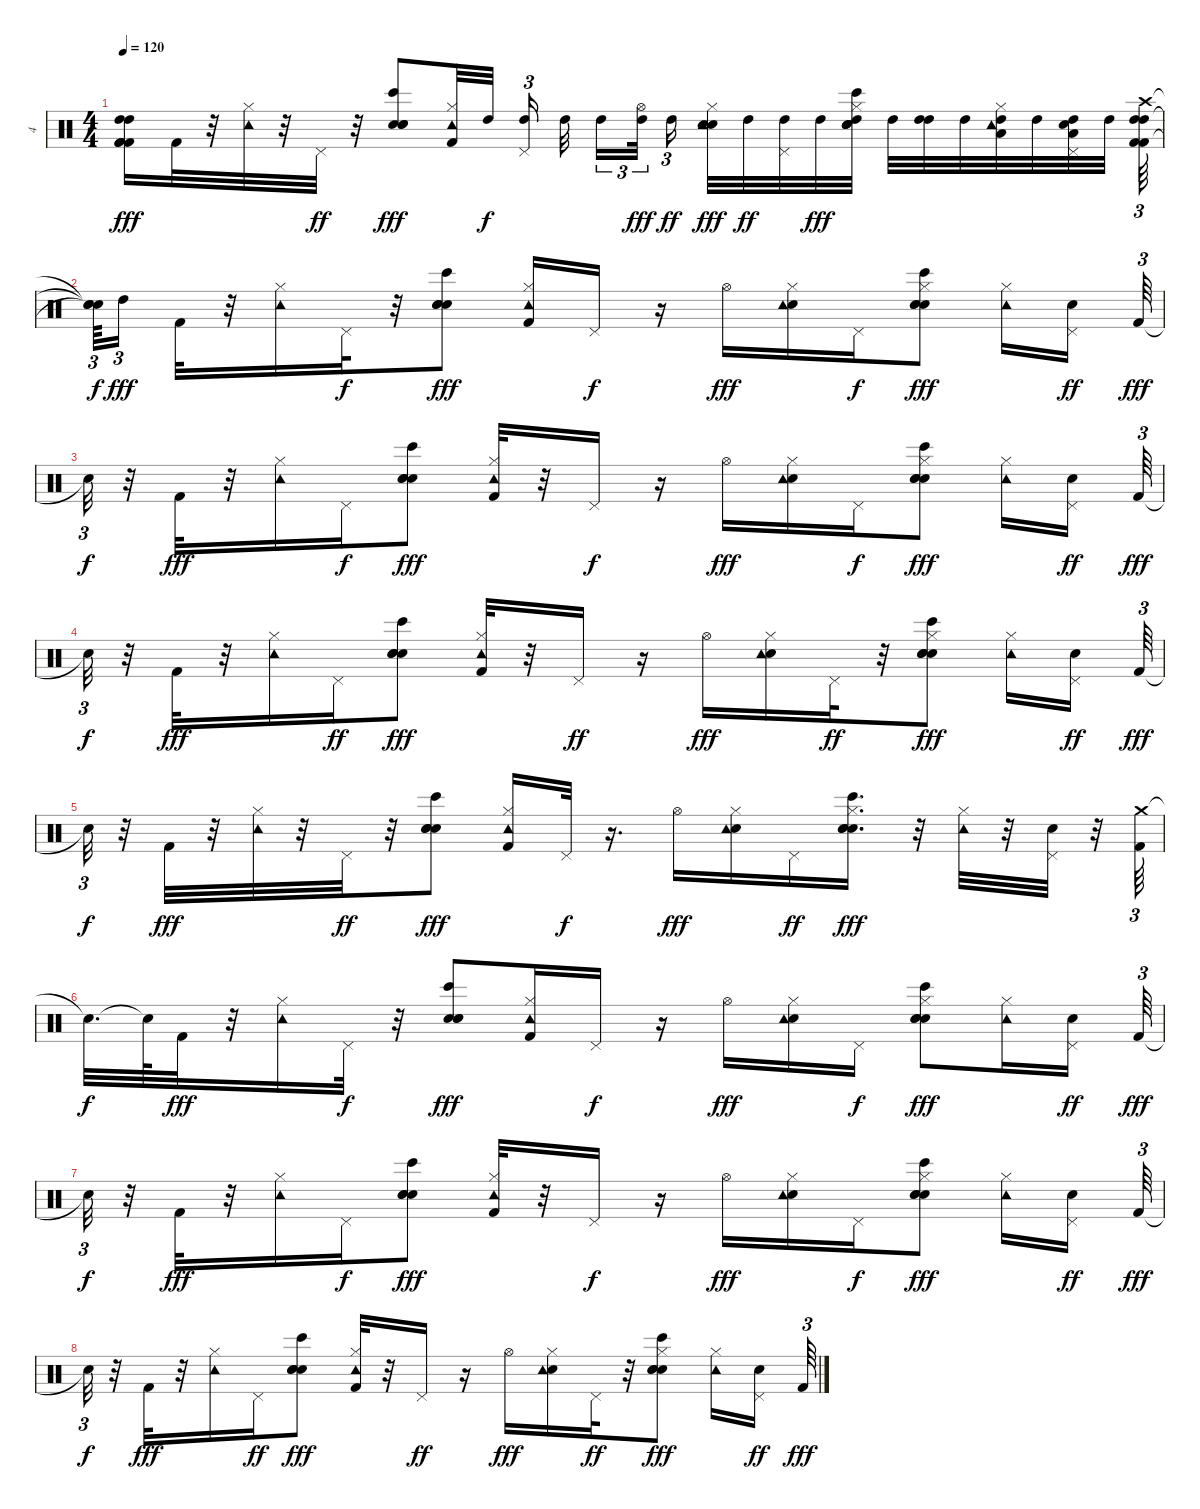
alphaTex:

\track ("4" "4") {instrument percussion}
\staff {score}
\articulation defaults
\ts (4 4)
\tempo 120
\clef neutral
\ks c
("Kick (hit) 2" "Kick (hit) 2" "High Tom (hit)" "Kick (hit) 2" "High Tom (hit)").16{dy fff} "Kick (hit) 2".32 r.32 ("Hi-Hat (closed)" "Tambourine (hit)").32 r.32 "Pedal Hi-Hat (hit)".32{dy ff} r.32 ("Snare (hit) 2" "Electric Snare (hit)" "Bongo High (hit)" "Hand Clap (hit)").8{dy fff} ("Hi-Hat (closed)" "Kick (hit) 2" "Tambourine (hit)").32 "High Tom (hit)".32{dy f beam splitsecondary} ("Pedal Hi-Hat (hit)" "High Tom (hit)").16{tu (3 2)} "High Tom (hit)".32 "High Tom (hit)".16{tu (3 2)} ("High Tom (hit)" "Hi-Hat (open)").32{tu (3 2) dy fff beam splitsecondary} "High Tom (hit)".16{tu (3 2) dy ff beam splitsecondary} ("Snare (hit) 2" "Hi-Hat (closed)" "Electric Snare (hit)" "Tambourine (hit)").32{dy fff} "High Tom (hit)".32{dy ff} ("Pedal Hi-Hat (hit)" "High Tom (hit)").32 "High Tom (hit)".32{dy fff} ("Snare (hit) 2" "High Tom (hit)" "Electric Snare (hit)" "Hand Clap (hit)" "Hi-Hat (closed)" "Bongo High (hit)").32 "High Tom (hit)".32 ("High Tom (hit)" "High Tom (hit)").32 "High Tom (hit)".32 ("Hi-Hat (closed)" "Low Tom (hit)" "Tambourine (hit)" "High Tom (hit)").32 "High Tom (hit)".32 ("High Tom (hit)" "Pedal Hi-Hat (hit)" "Snare (hit) 2" "Low Tom (hit)").32 "High Tom (hit)".32{beam splitsecondary} ("High Tom (hit)" "Crash high (hit)" "Kick (hit) 2" "High Tom (hit)" "Kick (hit) 2").64{tu (3 2)} |
("Snare (hit)"{t} "Snare (hit)"{t} "Snare (hit)"{t}).64{tu (3 2) dy f} "High Tom (hit)".16{tu (3 2) dy fff beam splitsecondary} "Kick (hit) 2".32 r.32 ("Hi-Hat (closed)" "Tambourine (hit)").16 "Pedal Hi-Hat (hit)".32{dy f} r.32 ("Snare (hit) 2" "Bongo High (hit)" "Hand Clap (hit)" "Electric Snare (hit)").8{dy fff} ("Hi-Hat (closed)" "Tambourine (hit)" "Kick (hit) 2").16 "Pedal Hi-Hat (hit)".16{dy f} r.16 "Hi-Hat (open)".16{dy fff} ("Hi-Hat (closed)" "Snare (hit) 2" "Tambourine (hit)").16 "Pedal Hi-Hat (hit)".16{dy f} ("Snare (hit) 2" "Hi-Hat (closed)" "Hand Clap (hit)" "Bongo High (hit)" "Electric Snare (hit)").8{dy fff} ("Hi-Hat (closed)" "Tambourine (hit)").16 ("Pedal Hi-Hat (hit)" "Snare (hit) 2").16{dy ff beam splitsecondary} "Kick (hit) 2".64{tu (3 2) dy fff} |
"Snare (hit)"{t}.32{tu (3 2) dy f} r.32 "Kick (hit) 2".32{dy fff} r.32 ("Hi-Hat (closed)" "Tambourine (hit)").16 "Pedal Hi-Hat (hit)".16{dy f} ("Snare (hit) 2" "Electric Snare (hit)" "Bongo High (hit)" "Hand Clap (hit)").8{dy fff} ("Hi-Hat (closed)" "Kick (hit) 2" "Tambourine (hit)").32 r.32 "Pedal Hi-Hat (hit)".16{dy f} r.16 "Hi-Hat (open)".16{dy fff} ("Snare (hit) 2" "Hi-Hat (closed)" "Tambourine (hit)").16 "Pedal Hi-Hat (hit)".16{dy f} ("Snare (hit) 2" "Hand Clap (hit)" "Hi-Hat (closed)" "Bongo High (hit)" "Electric Snare (hit)").8{dy fff} ("Hi-Hat (closed)" "Tambourine (hit)").16 ("Pedal Hi-Hat (hit)" "Snare (hit) 2").16{dy ff beam splitsecondary} "Kick (hit) 2".64{tu (3 2) dy fff} |
"Snare (hit)"{t}.32{tu (3 2) dy f} r.32 "Kick (hit) 2".32{dy fff} r.32 ("Hi-Hat (closed)" "Tambourine (hit)").16 "Pedal Hi-Hat (hit)".16{dy ff} ("Snare (hit) 2" "Electric Snare (hit)" "Bongo High (hit)" "Hand Clap (hit)").8{dy fff} ("Hi-Hat (closed)" "Kick (hit) 2" "Tambourine (hit)").32 r.32 "Pedal Hi-Hat (hit)".16{dy ff} r.16 "Hi-Hat (open)".16{dy fff} ("Snare (hit) 2" "Hi-Hat (closed)" "Tambourine (hit)").16 "Pedal Hi-Hat (hit)".32{dy ff} r.32 ("Snare (hit) 2" "Electric Snare (hit)" "Hi-Hat (closed)" "Hand Clap (hit)" "Bongo High (hit)").8{dy fff} ("Hi-Hat (closed)" "Tambourine (hit)").16 ("Pedal Hi-Hat (hit)" "Snare (hit) 2").16{dy ff beam splitsecondary} "Kick (hit) 2".64{tu (3 2) dy fff} |
"Snare (hit)"{t}.32{tu (3 2) dy f} r.32 "Kick (hit) 2".32{dy fff} r.32 ("Hi-Hat (closed)" "Tambourine (hit)").32 r.32 "Pedal Hi-Hat (hit)".32{dy ff} r.32 ("Snare (hit) 2" "Electric Snare (hit)" "Bongo High (hit)" "Hand Clap (hit)").8{dy fff} ("Hi-Hat (closed)" "Kick (hit) 2" "Tambourine (hit)").16 "Pedal Hi-Hat (hit)".32{dy f} r.16{d} "Hi-Hat (open)".16{dy fff} ("Snare (hit) 2" "Hi-Hat (closed)" "Tambourine (hit)").16 "Pedal Hi-Hat (hit)".16{dy ff} ("Snare (hit) 2" "Electric Snare (hit)" "Hand Clap (hit)" "Hi-Hat (closed)" "Bongo High (hit)").16{d dy fff} r.32 ("Hi-Hat (closed)" "Tambourine (hit)").32 r.32 ("Pedal Hi-Hat (hit)" "Snare (hit) 2").32 r.32 ("Crash medium (hit)" "Kick (hit) 2").64{tu (3 2)} |
"Snare (hit)"{t}.32{d dy f} "Snare (hit)"{t}.64 "Kick (hit) 2".32{dy fff} r.32 ("Hi-Hat (closed)" "Tambourine (hit)").16 "Pedal Hi-Hat (hit)".32{dy f} r.32 ("Snare (hit) 2" "Bongo High (hit)" "Hand Clap (hit)" "Electric Snare (hit)").8{dy fff} ("Hi-Hat (closed)" "Tambourine (hit)" "Kick (hit) 2").16 "Pedal Hi-Hat (hit)".16{dy f} r.16 "Hi-Hat (open)".16{dy fff} ("Hi-Hat (closed)" "Snare (hit) 2" "Tambourine (hit)").16 "Pedal Hi-Hat (hit)".16{dy f} ("Snare (hit) 2" "Hi-Hat (closed)" "Hand Clap (hit)" "Bongo High (hit)" "Electric Snare (hit)").8{dy fff} ("Hi-Hat (closed)" "Tambourine (hit)").16 ("Pedal Hi-Hat (hit)" "Snare (hit) 2").16{dy ff} "Kick (hit) 2".64{tu (3 2) dy fff} |
"Snare (hit)"{t}.32{tu (3 2) dy f} r.32 "Kick (hit) 2".32{dy fff} r.32 ("Hi-Hat (closed)" "Tambourine (hit)").16 "Pedal Hi-Hat (hit)".16{dy f} ("Snare (hit) 2" "Electric Snare (hit)" "Bongo High (hit)" "Hand Clap (hit)").8{dy fff} ("Hi-Hat (closed)" "Kick (hit) 2" "Tambourine (hit)").32 r.32 "Pedal Hi-Hat (hit)".16{dy f} r.16 "Hi-Hat (open)".16{dy fff} ("Snare (hit) 2" "Hi-Hat (closed)" "Tambourine (hit)").16 "Pedal Hi-Hat (hit)".16{dy f} ("Snare (hit) 2" "Hand Clap (hit)" "Hi-Hat (closed)" "Bongo High (hit)" "Electric Snare (hit)").8{dy fff} ("Hi-Hat (closed)" "Tambourine (hit)").16 ("Pedal Hi-Hat (hit)" "Snare (hit) 2").16{dy ff beam splitsecondary} "Kick (hit) 2".64{tu (3 2) dy fff} |
"Snare (hit)"{t}.32{tu (3 2) dy f} r.32 "Kick (hit) 2".32{dy fff} r.32 ("Hi-Hat (closed)" "Tambourine (hit)").16 "Pedal Hi-Hat (hit)".16{dy ff} ("Snare (hit) 2" "Electric Snare (hit)" "Bongo High (hit)" "Hand Clap (hit)").8{dy fff} ("Hi-Hat (closed)" "Kick (hit) 2" "Tambourine (hit)").32 r.32 "Pedal Hi-Hat (hit)".16{dy ff} r.16 "Hi-Hat (open)".16{dy fff} ("Snare (hit) 2" "Hi-Hat (closed)" "Tambourine (hit)").16 "Pedal Hi-Hat (hit)".32{dy ff} r.32 ("Snare (hit) 2" "Electric Snare (hit)" "Hi-Hat (closed)" "Hand Clap (hit)" "Bongo High (hit)").8{dy fff} ("Hi-Hat (closed)" "Tambourine (hit)").16 ("Pedal Hi-Hat (hit)" "Snare (hit) 2").16{dy ff beam splitsecondary} "Kick (hit) 2".64{tu (3 2) dy fff}
